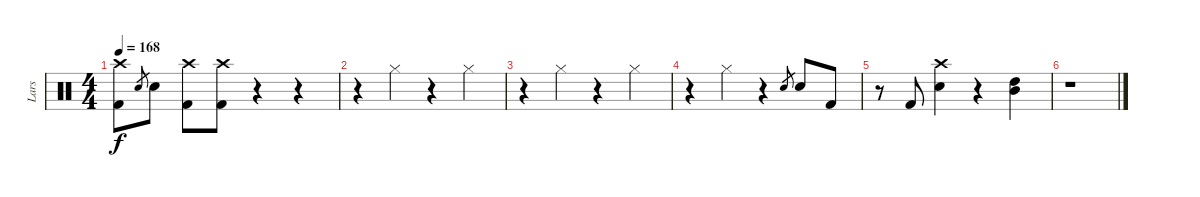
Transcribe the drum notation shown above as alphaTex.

\track ("Lars" "Lars") {instrument percussion}
\staff {score}
\articulation defaults
\ts (4 4)
\tempo 168
\clef neutral
\ks c
("Crash high (hit)" "Kick (hit) 2").8{dy f} "Snare (hit) 2".8{gr} "Snare (hit) 2".8 ("Crash high (hit)" "Kick (hit) 2").8 ("Crash high (hit)" "Kick (hit) 2").8 r.4 r.4 |
r.4 "Hi-Hat (closed)".4 r.4 "Hi-Hat (closed)".4 |
r.4 "Hi-Hat (closed)".4 r.4 "Hi-Hat (closed)".4 |
r.4 "Hi-Hat (closed)".4 r.4 "Snare (hit) 2".8{gr} "Snare (hit) 2".8 "Kick (hit) 2".8 |
r.8 "Kick (hit) 2".8 ("Crash high (hit)" "Snare (hit) 2").4 r.4 ("High Tom (hit)" "Mid Tom (hit)").4 |
r.1
